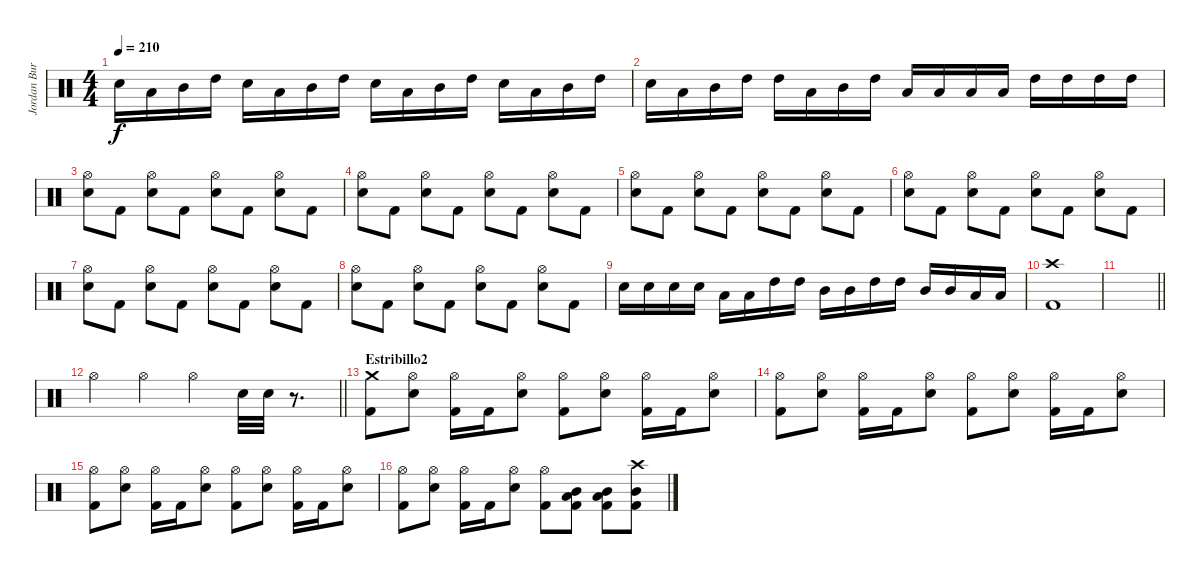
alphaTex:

\track ("Jordan Burns" "Jordan Bur") {instrument percussion}
\staff {score}
\articulation defaults
\ts (4 4)
\tempo 210
\clef neutral
\ks c "Electric Snare (hit)".16{dy f} "Low Tom (hit)".16 "Mid Tom (hit)".16 "High Tom (hit)".16 "Electric Snare (hit)".16 "Low Tom (hit)".16 "Mid Tom (hit)".16 "High Tom (hit)".16 "Electric Snare (hit)".16 "Low Tom (hit)".16 "Mid Tom (hit)".16 "High Tom (hit)".16 "Electric Snare (hit)".16 "Low Tom (hit)".16 "Mid Tom (hit)".16 "High Tom (hit)".16
|
"Electric Snare (hit)".16 "Low Tom (hit)".16 "Mid Tom (hit)".16 "High Tom (hit)".16 "High Tom (hit)".16 "Low Tom (hit)".16 "Mid Tom (hit)".16 "High Tom (hit)".16 "Low Tom (hit)".16 "Low Tom (hit)".16 "Low Tom (hit)".16 "Low Tom (hit)".16 "High Tom (hit)".16 "High Tom (hit)".16 "High Tom (hit)".16 "High Tom (hit)".16 |
("Hi-Hat (open)" "Electric Snare (hit)").8 "Kick (hit) 2".8 ("Hi-Hat (open)" "Electric Snare (hit)").8 "Kick (hit) 2".8 ("Hi-Hat (open)" "Electric Snare (hit)").8 "Kick (hit) 2".8 ("Hi-Hat (open)" "Electric Snare (hit)").8 "Kick (hit) 2".8 |
("Hi-Hat (open)" "Electric Snare (hit)").8 "Kick (hit) 2".8 ("Hi-Hat (open)" "Electric Snare (hit)").8 "Kick (hit) 2".8 ("Hi-Hat (open)" "Electric Snare (hit)").8 "Kick (hit) 2".8 ("Hi-Hat (open)" "Electric Snare (hit)").8 "Kick (hit) 2".8 |
("Hi-Hat (open)" "Electric Snare (hit)").8 "Kick (hit) 2".8 ("Hi-Hat (open)" "Electric Snare (hit)").8 "Kick (hit) 2".8 ("Hi-Hat (open)" "Electric Snare (hit)").8 "Kick (hit) 2".8 ("Hi-Hat (open)" "Electric Snare (hit)").8 "Kick (hit) 2".8 |
("Hi-Hat (open)" "Electric Snare (hit)").8 "Kick (hit) 2".8 ("Hi-Hat (open)" "Electric Snare (hit)").8 "Kick (hit) 2".8 ("Hi-Hat (open)" "Electric Snare (hit)").8 "Kick (hit) 2".8 ("Hi-Hat (open)" "Electric Snare (hit)").8 "Kick (hit) 2".8 |
("Hi-Hat (open)" "Electric Snare (hit)").8 "Kick (hit) 2".8 ("Hi-Hat (open)" "Electric Snare (hit)").8 "Kick (hit) 2".8 ("Hi-Hat (open)" "Electric Snare (hit)").8 "Kick (hit) 2".8 ("Hi-Hat (open)" "Electric Snare (hit)").8 "Kick (hit) 2".8 |
("Hi-Hat (open)" "Electric Snare (hit)").8 "Kick (hit) 2".8 ("Hi-Hat (open)" "Electric Snare (hit)").8 "Kick (hit) 2".8 ("Hi-Hat (open)" "Electric Snare (hit)").8 "Kick (hit) 2".8 ("Hi-Hat (open)" "Electric Snare (hit)").8 "Kick (hit) 2".8 |
"Electric Snare (hit)".16 "Electric Snare (hit)".16 "Electric Snare (hit)".16 "Electric Snare (hit)".16 "Low Tom (hit)".16 "Low Tom (hit)".16 "High Tom (hit)".16 "High Tom (hit)".16 "Mid Tom (hit)".16 "Mid Tom (hit)".16 "High Tom (hit)".16 "High Tom (hit)".16 "Mid Tom (hit)".16 "Mid Tom (hit)".16 "Low Tom (hit)".16 "Low Tom (hit)".16 |
("Crash high (hit)" "Kick (hit) 2").1 |
\barLineRight lightlight
|
\barLineRight lightlight "Hi-Hat (open)".4 "Hi-Hat (open)".4 "Hi-Hat (open)".4 "Electric Snare (hit)".32 "Electric Snare (hit)".32
r.8{d} |
\section ("" "Estribillo2")
("Crash medium (hit)" "Kick (hit) 2").8 ("Hi-Hat (open)" "Electric Snare (hit)").8 ("Hi-Hat (open)" "Kick (hit) 2").16 "Kick (hit) 2".16 ("Hi-Hat (open)" "Electric Snare (hit)").8 ("Hi-Hat (open)" "Kick (hit) 2").8 ("Hi-Hat (open)" "Electric Snare (hit)").8 ("Hi-Hat (open)" "Kick (hit) 2").16 "Kick (hit) 2".16 ("Hi-Hat (open)" "Electric Snare (hit)").8 |
("Hi-Hat (open)" "Kick (hit) 2").8 ("Hi-Hat (open)" "Electric Snare (hit)").8 ("Hi-Hat (open)" "Kick (hit) 2").16 "Kick (hit) 2".16 ("Hi-Hat (open)" "Electric Snare (hit)").8 ("Hi-Hat (open)" "Kick (hit) 2").8 ("Hi-Hat (open)" "Electric Snare (hit)").8 ("Hi-Hat (open)" "Kick (hit) 2").16 "Kick (hit) 2".16 ("Hi-Hat (open)" "Electric Snare (hit)").8 |
("Hi-Hat (open)" "Kick (hit) 2").8 ("Hi-Hat (open)" "Electric Snare (hit)").8 ("Hi-Hat (open)" "Kick (hit) 2").16 "Kick (hit) 2".16 ("Hi-Hat (open)" "Electric Snare (hit)").8 ("Hi-Hat (open)" "Kick (hit) 2").8 ("Hi-Hat (open)" "Electric Snare (hit)").8 ("Hi-Hat (open)" "Kick (hit) 2").16 "Kick (hit) 2".16 ("Hi-Hat (open)" "Electric Snare (hit)").8 |
("Hi-Hat (open)" "Kick (hit) 2").8 ("Hi-Hat (open)" "Electric Snare (hit)").8 ("Hi-Hat (open)" "Kick (hit) 2").16 "Kick (hit) 2".16 ("Hi-Hat (open)" "Electric Snare (hit)").8 ("Hi-Hat (open)" "Kick (hit) 2").8 ("Low Tom (hit)" "Mid Tom (hit)" "Kick (hit) 2").8 ("Low Tom (hit)" "Mid Tom (hit)" "Kick (hit) 2").8 ("Crash high (hit)" "Mid Tom (hit)" "Kick (hit) 2").8
